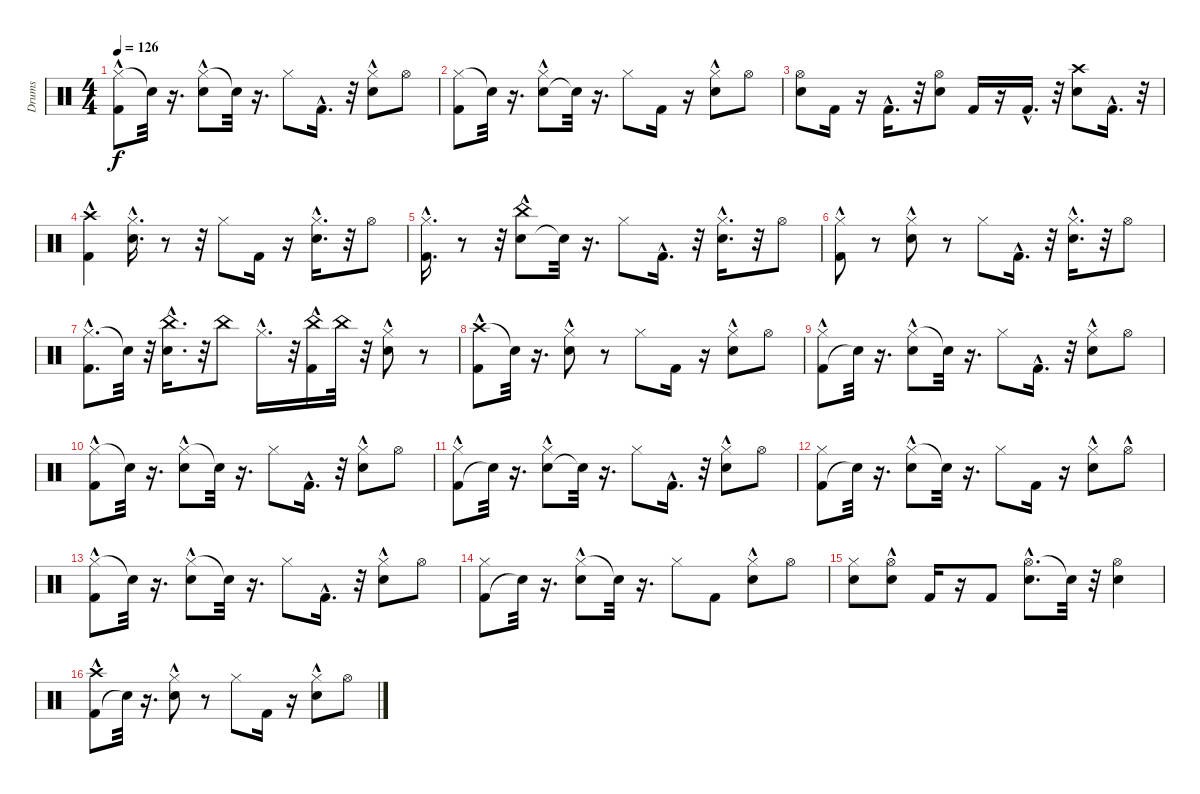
\track ("Drums" "Drums") {instrument percussion}
\staff {score}
\articulation defaults
\ts (4 4)
\tempo 126
\clef neutral
\ks c
("Hi-Hat (closed)" "Kick (hit) 2"{hac}).8{dy f} "Snare (hit)"{t}.32 r.16{d} ("Hi-Hat (closed)" "Electric Snare (hit)"{hac}).8 "Snare (hit)"{t}.32 r.16{d} "Hi-Hat (closed)".8 "Kick (hit) 2"{hac}.16{d} r.32 ("Electric Snare (hit)"{hac} "Hi-Hat (closed)").8 "Hi-Hat (open)".8 |
("Hi-Hat (closed)" "Kick (hit) 2").8 "Snare (hit)"{t}.32 r.16{d} ("Electric Snare (hit)"{hac} "Hi-Hat (closed)").8 "Snare (hit)"{t}.32 r.16{d} "Hi-Hat (closed)".8 "Kick (hit) 2".16 r.16 ("Hi-Hat (closed)" "Electric Snare (hit)"{hac}).8 "Hi-Hat (open)".8 |
("Electric Snare (hit)" "Hi-Hat (open)").8 "Kick (hit) 2".16 r.16 "Kick (hit) 2"{hac}.16{d} r.32 ("Electric Snare (hit)" "Hi-Hat (open)").8 "Kick (hit) 2".16 r.16 "Kick (hit) 2"{hac}.16{d} r.32 ("Crash high (hit)" "Electric Snare (hit)").8 "Kick (hit) 2"{hac}.16{d} r.32 |
("Kick (hit) 2"{hac} "Crash high (hit)").4 ("Hi-Hat (closed)"{hac} "Electric Snare (hit)"{hac}).16{d} r.8 r.32 "Hi-Hat (closed)".8 "Kick (hit) 2".16 r.16 ("Hi-Hat (closed)"{hac} "Electric Snare (hit)"{hac}).16{d} r.32 "Hi-Hat (open)".8 |
("Kick (hit) 2"{hac} "Hi-Hat (closed)").16{d} r.8 r.32 ("Electric Snare (hit)"{hac} "China (hit)").8 "Snare (hit)"{t}.32 r.16{d} "Hi-Hat (closed)".8 "Kick (hit) 2"{hac}.16{d} r.32 ("Electric Snare (hit)"{hac} "Hi-Hat (closed)").16{d} r.32 "Hi-Hat (open)".8 |
("Kick (hit) 2"{hac} "Hi-Hat (closed)").8 r.8 ("Hi-Hat (closed)" "Electric Snare (hit)"{hac}).8 r.8 "Hi-Hat (closed)".8 "Kick (hit) 2"{hac}.16{d} r.32 ("Hi-Hat (closed)"{hac} "Electric Snare (hit)"{hac}).16{d} r.32 "Hi-Hat (open)".8 |
("Hi-Hat (closed)"{hac} "Kick (hit) 2"{hac}).8{d} "Snare (hit)"{t}.32 r.32 ("China (hit)" "Electric Snare (hit)"{hac}).16{d} r.32 "China (hit)".8 "Hi-Hat (closed)"{hac}.16{d} r.32 ("Kick (hit) 2"{hac} "China (hit)").16 "China (hit)".32 r.32 ("Electric Snare (hit)"{hac} "Hi-Hat (closed)").8 r.8 |
("Crash high (hit)" "Kick (hit) 2"{hac}).8 "Snare (hit)"{t}.32 r.16{d} ("Hi-Hat (closed)" "Electric Snare (hit)"{hac}).8 r.8 "Hi-Hat (closed)".8 "Kick (hit) 2".16 r.16 ("Hi-Hat (closed)" "Electric Snare (hit)"{hac}).8 "Hi-Hat (open)".8 |
("Kick (hit) 2"{hac} "Hi-Hat (closed)").8 "Snare (hit)"{t}.32 r.16{d} ("Hi-Hat (closed)" "Electric Snare (hit)"{hac}).8 "Snare (hit)"{t}.32 r.16{d} "Hi-Hat (closed)".8 "Kick (hit) 2"{hac}.16{d} r.32 ("Electric Snare (hit)"{hac} "Hi-Hat (closed)").8 "Hi-Hat (open)".8 |
("Hi-Hat (closed)" "Kick (hit) 2"{hac}).8 "Snare (hit)"{t}.32 r.16{d} ("Hi-Hat (closed)" "Electric Snare (hit)"{hac}).8 "Snare (hit)"{t}.32 r.16{d} "Hi-Hat (closed)".8 "Kick (hit) 2"{hac}.16{d} r.32 ("Electric Snare (hit)"{hac} "Hi-Hat (closed)").8 "Hi-Hat (open)".8 |
("Kick (hit) 2"{hac} "Hi-Hat (closed)").8 "Snare (hit)"{t}.32 r.16{d} ("Electric Snare (hit)"{hac} "Hi-Hat (closed)").8 "Snare (hit)"{t}.32 r.16{d} "Hi-Hat (closed)".8 "Kick (hit) 2"{hac}.16{d} r.32 ("Hi-Hat (closed)" "Electric Snare (hit)"{hac}).8 "Hi-Hat (open)".8 |
("Kick (hit) 2" "Hi-Hat (closed)").8 "Snare (hit)"{t}.32 r.16{d} ("Hi-Hat (closed)" "Electric Snare (hit)"{hac}).8 "Snare (hit)"{t}.32 r.16{d} "Hi-Hat (closed)".8 "Kick (hit) 2".16 r.16 ("Electric Snare (hit)"{hac} "Hi-Hat (closed)").8 "Hi-Hat (open)"{hac}.8 |
("Hi-Hat (closed)" "Kick (hit) 2"{hac}).8 "Snare (hit)"{t}.32 r.16{d} ("Hi-Hat (closed)" "Electric Snare (hit)"{hac}).8 "Snare (hit)"{t}.32 r.16{d} "Hi-Hat (closed)".8 "Kick (hit) 2"{hac}.16{d} r.32 ("Hi-Hat (closed)" "Electric Snare (hit)"{hac}).8 "Hi-Hat (open)".8 |
("Kick (hit) 2" "Hi-Hat (closed)").8 "Snare (hit)"{t}.32 r.16{d} ("Hi-Hat (closed)" "Electric Snare (hit)"{hac}).8 "Snare (hit)"{t}.32 r.16{d} "Hi-Hat (closed)".8 "Kick (hit) 2".8 ("Electric Snare (hit)"{hac} "Hi-Hat (closed)").8 "Hi-Hat (open)".8 |
("Hi-Hat (closed)" "Electric Snare (hit)").8 ("Electric Snare (hit)"{hac} "Hi-Hat (open)").8 "Kick (hit) 2".16 r.16 "Kick (hit) 2".8 ("Hi-Hat (open)"{hac} "Electric Snare (hit)").8{d} "Snare (hit)"{t}.32 r.32 ("Electric Snare (hit)" "Hi-Hat (open)").4 |
("Kick (hit) 2"{hac} "Crash high (hit)").8 "Snare (hit)"{t}.32 r.16{d} ("Electric Snare (hit)"{hac} "Hi-Hat (closed)").8 r.8 "Hi-Hat (closed)".8 "Kick (hit) 2".16 r.16 ("Hi-Hat (closed)" "Electric Snare (hit)"{hac}).8 "Hi-Hat (open)".8
